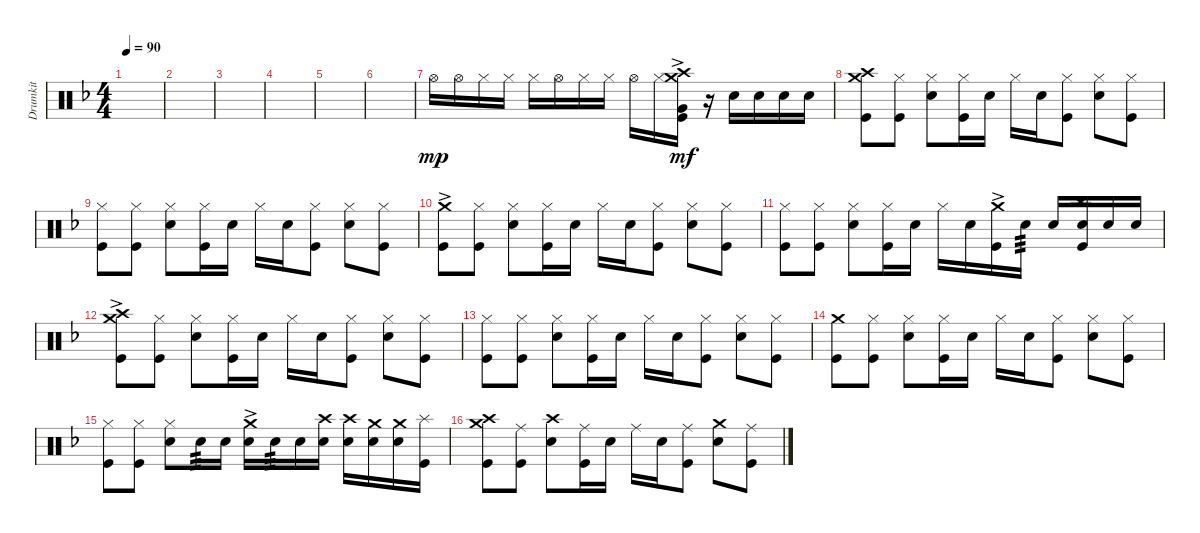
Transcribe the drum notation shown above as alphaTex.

\track ("Drumkit" "Drumkit") {instrument percussion}
\staff {score}
\articulation defaults
\ts (4 4)
\tempo 90
\clef neutral
\ks f
|
|
|
|
|
|
"Hi-Hat (open)".16{dy mp} "Hi-Hat (open)".16 "Hi-Hat (closed)".16 "Hi-Hat (closed)".16 "Hi-Hat (closed)".16 "Hi-Hat (open)".16 "Hi-Hat (closed)".16 "Hi-Hat (closed)".16 "Hi-Hat (open)".16 "Hi-Hat (closed)".16 ("Kick (hit)" "Very Low Tom (hit)" "Crash high (hit)"{ac} "Crash medium (hit)"{ac}).16{dy mf} r.16 "Snare (hit) 2".16 "Snare (hit) 2".16 "Snare (hit) 2".16 "Snare (hit) 2".16 |
("Kick (hit)" "Crash high (hit)" "Crash medium (hit)").8 ("Kick (hit)" "Hi-Hat (closed)").8 ("Snare (hit) 2" "Hi-Hat (closed)").8 ("Kick (hit)" "Hi-Hat (closed)").16 "Snare (hit) 2".16 "Hi-Hat (closed)".16 "Snare (hit) 2".16 ("Kick (hit)" "Hi-Hat (closed)").8 ("Snare (hit) 2" "Hi-Hat (closed)").8 ("Kick (hit)" "Hi-Hat (closed)").8 |
("Kick (hit)" "Hi-Hat (closed)").8 ("Kick (hit)" "Hi-Hat (closed)").8 ("Snare (hit) 2" "Hi-Hat (closed)").8 ("Kick (hit)" "Hi-Hat (closed)").16 "Snare (hit) 2".16 "Hi-Hat (closed)".16 "Snare (hit) 2".16 ("Kick (hit)" "Hi-Hat (closed)").8 ("Snare (hit) 2" "Hi-Hat (closed)").8 ("Kick (hit)" "Hi-Hat (closed)").8 |
("Kick (hit)" "Crash medium (hit)"{ac}).8 ("Kick (hit)" "Hi-Hat (closed)").8 ("Snare (hit) 2" "Hi-Hat (closed)").8 ("Kick (hit)" "Hi-Hat (closed)").16 "Snare (hit) 2".16 "Hi-Hat (closed)".16 "Snare (hit) 2".16 ("Kick (hit)" "Hi-Hat (closed)").8 ("Snare (hit) 2" "Hi-Hat (closed)").8 ("Kick (hit)" "Hi-Hat (closed)").8 |
("Kick (hit)" "Hi-Hat (closed)").8 ("Kick (hit)" "Hi-Hat (closed)").8 ("Snare (hit) 2" "Hi-Hat (closed)").8 ("Kick (hit)" "Hi-Hat (closed)").16 "Snare (hit) 2".16 "Hi-Hat (closed)".16 "Snare (hit) 2".16 ("Kick (hit)" "Crash medium (hit)"{ac}).16 "Snare (hit) 2".16{tp 3} "Snare (hit) 2".16 ("Snare (hit) 2" "Crash high (hit)" "Kick (hit)").16 "Snare (hit) 2".16 "Snare (hit) 2".16 |
("Kick (hit)" "Crash high (hit)"{ac} "Crash medium (hit)"{ac}).8 ("Kick (hit)" "Hi-Hat (closed)").8 ("Snare (hit) 2" "Hi-Hat (closed)").8 ("Kick (hit)" "Hi-Hat (closed)").16 "Snare (hit) 2".16 "Hi-Hat (closed)".16 "Snare (hit) 2".16 ("Kick (hit)" "Hi-Hat (closed)").8 ("Snare (hit) 2" "Hi-Hat (closed)").8 ("Kick (hit)" "Hi-Hat (closed)").8 |
("Kick (hit)" "Hi-Hat (closed)").8 ("Kick (hit)" "Hi-Hat (closed)").8 ("Snare (hit) 2" "Hi-Hat (closed)").8 ("Kick (hit)" "Hi-Hat (closed)").16 "Snare (hit) 2".16 "Hi-Hat (closed)".16 "Snare (hit) 2".16 ("Kick (hit)" "Hi-Hat (closed)").8 ("Snare (hit) 2" "Hi-Hat (closed)").8 ("Kick (hit)" "Hi-Hat (closed)").8 |
("Kick (hit)" "Crash medium (hit)").8 ("Kick (hit)" "Hi-Hat (closed)").8 ("Snare (hit) 2" "Hi-Hat (closed)").8 ("Kick (hit)" "Hi-Hat (closed)").16 "Snare (hit) 2".16 "Hi-Hat (closed)".16 "Snare (hit) 2".16 ("Kick (hit)" "Hi-Hat (closed)").8 ("Snare (hit) 2" "Hi-Hat (closed)").8 ("Kick (hit)" "Hi-Hat (closed)").8 |
("Kick (hit)" "Hi-Hat (closed)").8 ("Kick (hit)" "Hi-Hat (closed)").8 ("Snare (hit) 2" "Hi-Hat (closed)").8 "Snare (hit) 2".16{tp 3} "Snare (hit) 2".16 ("Snare (hit) 2" "Crash medium (hit)"{ac}).16 "Snare (hit) 2".16{tp 3} "Snare (hit) 2".16 ("Snare (hit) 2" "Crash high (hit)").16 ("Snare (hit) 2" "Crash high (hit)").16 ("Snare (hit) 2" "Crash medium (hit)").16 ("Crash medium (hit)" "Snare (hit) 2").16 ("Splash (hit)" "Kick (hit)").16 |
("Kick (hit)" "Crash high (hit)" "Crash medium (hit)").8 ("Kick (hit)" "Ride (middle)").8 ("Snare (hit) 2" "Crash high (hit)").8 ("Kick (hit)" "Ride (middle)").16 "Snare (hit) 2".16 "Ride (middle)".16 "Snare (hit) 2".16 ("Kick (hit)" "Ride (middle)").8 ("Snare (hit) 2" "Crash medium (hit)").8 ("Kick (hit)" "Ride (middle)").8
